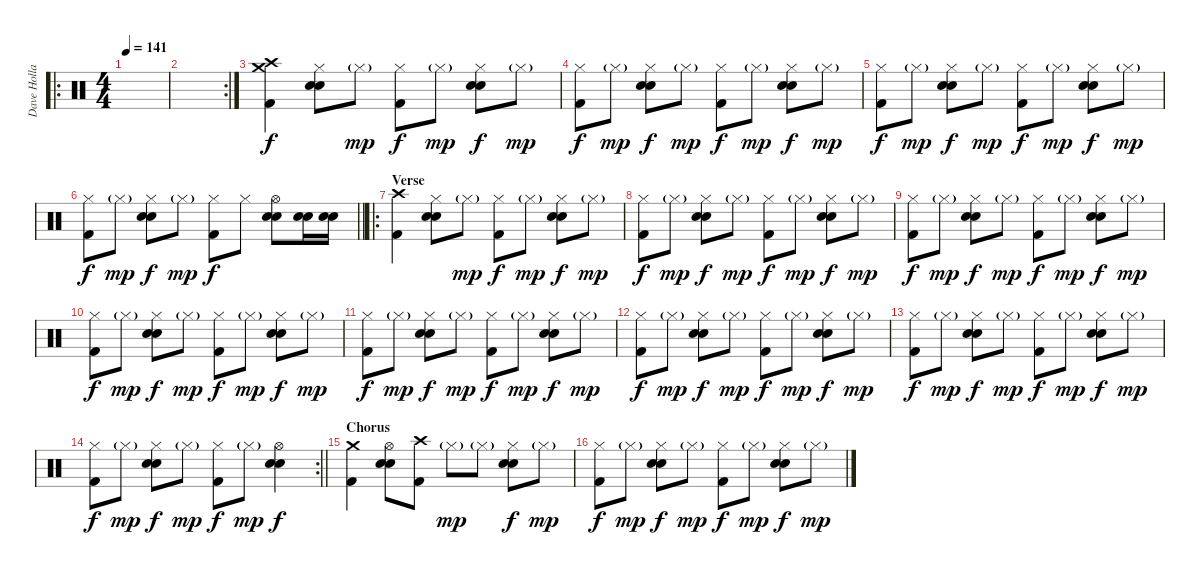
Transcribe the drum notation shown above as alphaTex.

\track ("Dave Holland" "Dave Holla") {instrument percussion}
\staff {score}
\articulation defaults
\ro
\ts (4 4)
\tempo 141
\clef neutral
\ks c
|
\rc 2
|
("Crash high (hit)" "Crash medium (hit)" "Kick (hit) 2").4 ("Hi-Hat (closed)" "Electric Snare (hit)" "Snare (hit) 2").8 "Hi-Hat (closed)"{g}.8{dy mp} ("Hi-Hat (closed)" "Kick (hit) 2").8{dy f} "Hi-Hat (closed)"{g}.8{dy mp} ("Hi-Hat (closed)" "Electric Snare (hit)" "Snare (hit) 2").8{dy f} "Hi-Hat (closed)"{g}.8{dy mp} |
("Hi-Hat (closed)" "Kick (hit) 2").8{dy f} "Hi-Hat (closed)"{g}.8{dy mp} ("Hi-Hat (closed)" "Electric Snare (hit)" "Snare (hit) 2").8{dy f} "Hi-Hat (closed)"{g}.8{dy mp} ("Hi-Hat (closed)" "Kick (hit) 2").8{dy f} "Hi-Hat (closed)"{g}.8{dy mp} ("Hi-Hat (closed)" "Electric Snare (hit)" "Snare (hit) 2").8{dy f} "Hi-Hat (closed)"{g}.8{dy mp} |
("Hi-Hat (closed)" "Kick (hit) 2").8{dy f} "Hi-Hat (closed)"{g}.8{dy mp} ("Hi-Hat (closed)" "Electric Snare (hit)" "Snare (hit) 2").8{dy f} "Hi-Hat (closed)"{g}.8{dy mp} ("Hi-Hat (closed)" "Kick (hit) 2").8{dy f} "Hi-Hat (closed)"{g}.8{dy mp} ("Hi-Hat (closed)" "Electric Snare (hit)" "Snare (hit) 2").8{dy f} "Hi-Hat (closed)"{g}.8{dy mp} |
\barLineRight lightlight
("Hi-Hat (closed)" "Kick (hit) 2").8{dy f} "Hi-Hat (closed)"{g}.8{dy mp} ("Hi-Hat (closed)" "Electric Snare (hit)" "Snare (hit) 2").8{dy f} "Hi-Hat (closed)"{g}.8{dy mp} ("Hi-Hat (closed)" "Kick (hit) 2").8{dy f} "Hi-Hat (closed)".8 ("Hi-Hat (open)" "Electric Snare (hit)" "Snare (hit) 2").8 ("Electric Snare (hit)" "Snare (hit) 2").16 ("Electric Snare (hit)" "Snare (hit) 2").16 |
\ro
\section ("" "Verse")
("Crash high (hit)" "Kick (hit) 2").4 ("Hi-Hat (closed)" "Electric Snare (hit)" "Snare (hit) 2").8 "Hi-Hat (closed)"{g}.8{dy mp} ("Hi-Hat (closed)" "Kick (hit) 2").8{dy f} "Hi-Hat (closed)"{g}.8{dy mp} ("Hi-Hat (closed)" "Electric Snare (hit)" "Snare (hit) 2").8{dy f} "Hi-Hat (closed)"{g}.8{dy mp} |
("Hi-Hat (closed)" "Kick (hit) 2").8{dy f} "Hi-Hat (closed)"{g}.8{dy mp} ("Hi-Hat (closed)" "Electric Snare (hit)" "Snare (hit) 2").8{dy f} "Hi-Hat (closed)"{g}.8{dy mp} ("Hi-Hat (closed)" "Kick (hit) 2").8{dy f} "Hi-Hat (closed)"{g}.8{dy mp} ("Hi-Hat (closed)" "Electric Snare (hit)" "Snare (hit) 2").8{dy f} "Hi-Hat (closed)"{g}.8{dy mp} |
("Hi-Hat (closed)" "Kick (hit) 2").8{dy f} "Hi-Hat (closed)"{g}.8{dy mp} ("Hi-Hat (closed)" "Electric Snare (hit)" "Snare (hit) 2").8{dy f} "Hi-Hat (closed)"{g}.8{dy mp} ("Hi-Hat (closed)" "Kick (hit) 2").8{dy f} "Hi-Hat (closed)"{g}.8{dy mp} ("Hi-Hat (closed)" "Electric Snare (hit)" "Snare (hit) 2").8{dy f} "Hi-Hat (closed)"{g}.8{dy mp} |
("Hi-Hat (closed)" "Kick (hit) 2").8{dy f} "Hi-Hat (closed)"{g}.8{dy mp} ("Hi-Hat (closed)" "Electric Snare (hit)" "Snare (hit) 2").8{dy f} "Hi-Hat (closed)"{g}.8{dy mp} ("Hi-Hat (closed)" "Kick (hit) 2").8{dy f} "Hi-Hat (closed)"{g}.8{dy mp} ("Hi-Hat (closed)" "Electric Snare (hit)" "Snare (hit) 2").8{dy f} "Hi-Hat (closed)"{g}.8{dy mp} |
("Hi-Hat (closed)" "Kick (hit) 2").8{dy f} "Hi-Hat (closed)"{g}.8{dy mp} ("Hi-Hat (closed)" "Electric Snare (hit)" "Snare (hit) 2").8{dy f} "Hi-Hat (closed)"{g}.8{dy mp} ("Hi-Hat (closed)" "Kick (hit) 2").8{dy f} "Hi-Hat (closed)"{g}.8{dy mp} ("Hi-Hat (closed)" "Electric Snare (hit)" "Snare (hit) 2").8{dy f} "Hi-Hat (closed)"{g}.8{dy mp} |
("Hi-Hat (closed)" "Kick (hit) 2").8{dy f} "Hi-Hat (closed)"{g}.8{dy mp} ("Hi-Hat (closed)" "Electric Snare (hit)" "Snare (hit) 2").8{dy f} "Hi-Hat (closed)"{g}.8{dy mp} ("Hi-Hat (closed)" "Kick (hit) 2").8{dy f} "Hi-Hat (closed)"{g}.8{dy mp} ("Hi-Hat (closed)" "Electric Snare (hit)" "Snare (hit) 2").8{dy f} "Hi-Hat (closed)"{g}.8{dy mp} |
("Hi-Hat (closed)" "Kick (hit) 2").8{dy f} "Hi-Hat (closed)"{g}.8{dy mp} ("Hi-Hat (closed)" "Electric Snare (hit)" "Snare (hit) 2").8{dy f} "Hi-Hat (closed)"{g}.8{dy mp} ("Hi-Hat (closed)" "Kick (hit) 2").8{dy f} "Hi-Hat (closed)"{g}.8{dy mp} ("Hi-Hat (closed)" "Electric Snare (hit)" "Snare (hit) 2").8{dy f} "Hi-Hat (closed)"{g}.8{dy mp} |
\rc 2
\barLineRight lightlight
("Hi-Hat (closed)" "Kick (hit) 2").8{dy f} "Hi-Hat (closed)"{g}.8{dy mp} ("Hi-Hat (closed)" "Electric Snare (hit)" "Snare (hit) 2").8{dy f} "Hi-Hat (closed)"{g}.8{dy mp} ("Hi-Hat (closed)" "Kick (hit) 2").8{dy f} "Hi-Hat (closed)"{g}.8{dy mp} ("Hi-Hat (open)" "Electric Snare (hit)" "Snare (hit) 2").4{dy f} |
\section ("" "Chorus")
("Crash medium (hit)" "Kick (hit) 2").4 ("Hi-Hat (open)" "Electric Snare (hit)" "Snare (hit) 2").8 ("Crash high (hit)" "Kick (hit) 2").8 "Hi-Hat (closed)"{g}.8{dy mp} "Hi-Hat (closed)"{g}.8 ("Hi-Hat (closed)" "Electric Snare (hit)" "Snare (hit) 2").8{dy f} "Hi-Hat (closed)"{g}.8{dy mp} |
("Hi-Hat (closed)" "Kick (hit) 2").8{dy f} "Hi-Hat (closed)"{g}.8{dy mp} ("Hi-Hat (closed)" "Electric Snare (hit)" "Snare (hit) 2").8{dy f} "Hi-Hat (closed)"{g}.8{dy mp} ("Hi-Hat (closed)" "Kick (hit) 2").8{dy f} "Hi-Hat (closed)"{g}.8{dy mp} ("Hi-Hat (closed)" "Electric Snare (hit)" "Snare (hit) 2").8{dy f} "Hi-Hat (closed)"{g}.8{dy mp}
